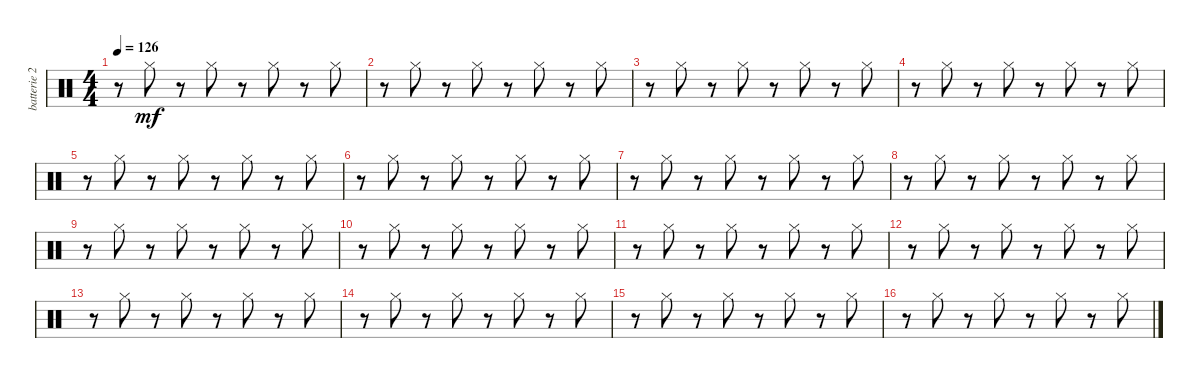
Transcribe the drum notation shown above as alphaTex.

\track ("batterie 2" "batterie 2") {instrument percussion}
\staff {score}
\articulation defaults
\ts (4 4)
\tempo 126
\clef neutral
\ks c
r.8{dy mf} "Hi-Hat (closed)".8 r.8 "Hi-Hat (closed)".8 r.8 "Hi-Hat (closed)".8 r.8 "Hi-Hat (closed)".8 |
r.8 "Hi-Hat (closed)".8 r.8 "Hi-Hat (closed)".8 r.8 "Hi-Hat (closed)".8 r.8 "Hi-Hat (closed)".8 |
r.8 "Hi-Hat (closed)".8 r.8 "Hi-Hat (closed)".8 r.8 "Hi-Hat (closed)".8 r.8 "Hi-Hat (closed)".8 |
r.8 "Hi-Hat (closed)".8 r.8 "Hi-Hat (closed)".8 r.8 "Hi-Hat (closed)".8 r.8 "Hi-Hat (closed)".8 |
r.8 "Hi-Hat (closed)".8 r.8 "Hi-Hat (closed)".8 r.8 "Hi-Hat (closed)".8 r.8 "Hi-Hat (closed)".8 |
r.8 "Hi-Hat (closed)".8 r.8 "Hi-Hat (closed)".8 r.8 "Hi-Hat (closed)".8 r.8 "Hi-Hat (closed)".8 |
r.8 "Hi-Hat (closed)".8 r.8 "Hi-Hat (closed)".8 r.8 "Hi-Hat (closed)".8 r.8 "Hi-Hat (closed)".8 |
r.8 "Hi-Hat (closed)".8 r.8 "Hi-Hat (closed)".8 r.8 "Hi-Hat (closed)".8 r.8 "Hi-Hat (closed)".8 |
r.8 "Hi-Hat (closed)".8 r.8 "Hi-Hat (closed)".8 r.8 "Hi-Hat (closed)".8 r.8 "Hi-Hat (closed)".8 |
r.8 "Hi-Hat (closed)".8 r.8 "Hi-Hat (closed)".8 r.8 "Hi-Hat (closed)".8 r.8 "Hi-Hat (closed)".8 |
r.8 "Hi-Hat (closed)".8 r.8 "Hi-Hat (closed)".8 r.8 "Hi-Hat (closed)".8 r.8 "Hi-Hat (closed)".8 |
r.8 "Hi-Hat (closed)".8 r.8 "Hi-Hat (closed)".8 r.8 "Hi-Hat (closed)".8 r.8 "Hi-Hat (closed)".8 |
r.8 "Hi-Hat (closed)".8 r.8 "Hi-Hat (closed)".8 r.8 "Hi-Hat (closed)".8 r.8 "Hi-Hat (closed)".8 |
r.8 "Hi-Hat (closed)".8 r.8 "Hi-Hat (closed)".8 r.8 "Hi-Hat (closed)".8 r.8 "Hi-Hat (closed)".8 |
r.8 "Hi-Hat (closed)".8 r.8 "Hi-Hat (closed)".8 r.8 "Hi-Hat (closed)".8 r.8 "Hi-Hat (closed)".8 |
r.8 "Hi-Hat (closed)".8 r.8 "Hi-Hat (closed)".8 r.8 "Hi-Hat (closed)".8 r.8 "Hi-Hat (closed)".8
